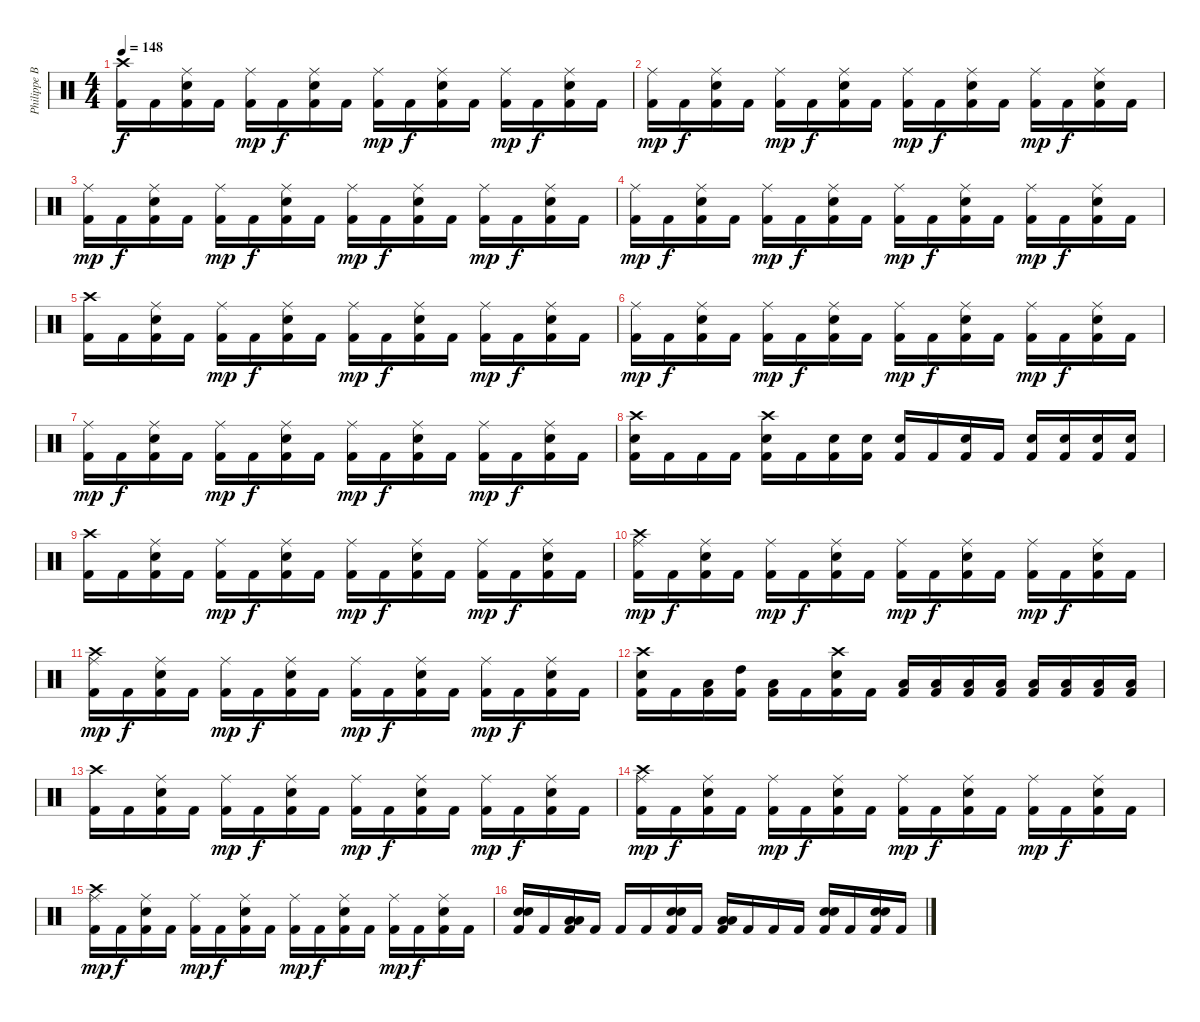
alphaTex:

\track ("Philippe Borda" "Philippe B") {instrument percussion}
\staff {score}
\articulation defaults
\ts (4 4)
\tempo 148
\clef neutral
\ks c
("Crash high (hit)" "Kick (hit) 2").16{dy f} "Kick (hit) 2".16 ("Kick (hit) 2" "Snare (hit) 2" "Ride (middle)").16 "Kick (hit) 2".16 ("Kick (hit) 2" "Ride (middle)").16{dy mp} "Kick (hit) 2".16{dy f} ("Kick (hit) 2" "Snare (hit) 2" "Ride (middle)").16 "Kick (hit) 2".16 ("Kick (hit) 2" "Ride (middle)").16{dy mp} "Kick (hit) 2".16{dy f} ("Kick (hit) 2" "Snare (hit) 2" "Ride (middle)").16 "Kick (hit) 2".16 ("Kick (hit) 2" "Ride (middle)").16{dy mp} "Kick (hit) 2".16{dy f} ("Kick (hit) 2" "Snare (hit) 2" "Ride (middle)").16 "Kick (hit) 2".16 |
("Kick (hit) 2" "Ride (middle)").16{dy mp} "Kick (hit) 2".16{dy f} ("Kick (hit) 2" "Ride (middle)" "Snare (hit) 2").16 "Kick (hit) 2".16 ("Kick (hit) 2" "Ride (middle)").16{dy mp} "Kick (hit) 2".16{dy f} ("Kick (hit) 2" "Ride (middle)" "Snare (hit) 2").16 "Kick (hit) 2".16 ("Kick (hit) 2" "Ride (middle)").16{dy mp} "Kick (hit) 2".16{dy f} ("Kick (hit) 2" "Ride (middle)" "Snare (hit) 2").16 "Kick (hit) 2".16 ("Kick (hit) 2" "Ride (middle)").16{dy mp} "Kick (hit) 2".16{dy f} ("Kick (hit) 2" "Ride (middle)" "Snare (hit) 2").16 "Kick (hit) 2".16 |
("Kick (hit) 2" "Ride (middle)").16{dy mp} "Kick (hit) 2".16{dy f} ("Kick (hit) 2" "Ride (middle)" "Snare (hit) 2").16 "Kick (hit) 2".16 ("Kick (hit) 2" "Ride (middle)").16{dy mp} "Kick (hit) 2".16{dy f} ("Kick (hit) 2" "Ride (middle)" "Snare (hit) 2").16 "Kick (hit) 2".16 ("Kick (hit) 2" "Ride (middle)").16{dy mp} "Kick (hit) 2".16{dy f} ("Kick (hit) 2" "Ride (middle)" "Snare (hit) 2").16 "Kick (hit) 2".16 ("Kick (hit) 2" "Ride (middle)").16{dy mp} "Kick (hit) 2".16{dy f} ("Kick (hit) 2" "Ride (middle)" "Snare (hit) 2").16 "Kick (hit) 2".16 |
("Kick (hit) 2" "Ride (middle)").16{dy mp} "Kick (hit) 2".16{dy f} ("Kick (hit) 2" "Ride (middle)" "Snare (hit) 2").16 "Kick (hit) 2".16 ("Kick (hit) 2" "Ride (middle)").16{dy mp} "Kick (hit) 2".16{dy f} ("Kick (hit) 2" "Ride (middle)" "Snare (hit) 2").16 "Kick (hit) 2".16 ("Kick (hit) 2" "Ride (middle)").16{dy mp} "Kick (hit) 2".16{dy f} ("Kick (hit) 2" "Ride (middle)" "Snare (hit) 2").16 "Kick (hit) 2".16 ("Kick (hit) 2" "Ride (middle)").16{dy mp} "Kick (hit) 2".16{dy f} ("Kick (hit) 2" "Ride (middle)" "Snare (hit) 2").16 "Kick (hit) 2".16 |
("Crash high (hit)" "Kick (hit) 2").16 "Kick (hit) 2".16 ("Kick (hit) 2" "Ride (middle)" "Snare (hit) 2").16 "Kick (hit) 2".16 ("Kick (hit) 2" "Ride (middle)").16{dy mp} "Kick (hit) 2".16{dy f} ("Kick (hit) 2" "Ride (middle)" "Snare (hit) 2").16 "Kick (hit) 2".16 ("Kick (hit) 2" "Ride (middle)").16{dy mp} "Kick (hit) 2".16{dy f} ("Kick (hit) 2" "Ride (middle)" "Snare (hit) 2").16 "Kick (hit) 2".16 ("Kick (hit) 2" "Ride (middle)").16{dy mp} "Kick (hit) 2".16{dy f} ("Kick (hit) 2" "Ride (middle)" "Snare (hit) 2").16 "Kick (hit) 2".16 |
("Kick (hit) 2" "Ride (middle)").16{dy mp} "Kick (hit) 2".16{dy f} ("Kick (hit) 2" "Ride (middle)" "Snare (hit) 2").16 "Kick (hit) 2".16 ("Kick (hit) 2" "Ride (middle)").16{dy mp} "Kick (hit) 2".16{dy f} ("Kick (hit) 2" "Ride (middle)" "Snare (hit) 2").16 "Kick (hit) 2".16 ("Kick (hit) 2" "Ride (middle)").16{dy mp} "Kick (hit) 2".16{dy f} ("Kick (hit) 2" "Ride (middle)" "Snare (hit) 2").16 "Kick (hit) 2".16 ("Kick (hit) 2" "Ride (middle)").16{dy mp} "Kick (hit) 2".16{dy f} ("Kick (hit) 2" "Ride (middle)" "Snare (hit) 2").16 "Kick (hit) 2".16 |
("Kick (hit) 2" "Ride (middle)").16{dy mp} "Kick (hit) 2".16{dy f} ("Kick (hit) 2" "Ride (middle)" "Snare (hit) 2").16 "Kick (hit) 2".16 ("Kick (hit) 2" "Ride (middle)").16{dy mp} "Kick (hit) 2".16{dy f} ("Kick (hit) 2" "Ride (middle)" "Snare (hit) 2").16 "Kick (hit) 2".16 ("Kick (hit) 2" "Ride (middle)").16{dy mp} "Kick (hit) 2".16{dy f} ("Kick (hit) 2" "Ride (middle)" "Snare (hit) 2").16 "Kick (hit) 2".16 ("Kick (hit) 2" "Ride (middle)").16{dy mp} "Kick (hit) 2".16{dy f} ("Kick (hit) 2" "Ride (middle)" "Snare (hit) 2").16 "Kick (hit) 2".16 |
("Crash high (hit)" "Kick (hit) 2" "Snare (hit) 2").16 "Kick (hit) 2".16 "Kick (hit) 2".16 "Kick (hit) 2".16 ("Crash high (hit)" "Kick (hit) 2" "Snare (hit) 2").16 "Kick (hit) 2".16 ("Kick (hit) 2" "Snare (hit) 2").16 ("Snare (hit) 2" "Kick (hit) 2").16 ("Kick (hit) 2" "Snare (hit) 2").16 "Kick (hit) 2".16 ("Kick (hit) 2" "Snare (hit) 2").16 "Kick (hit) 2".16 ("Kick (hit) 2" "Snare (hit) 2").16 ("Snare (hit) 2" "Kick (hit) 2").16 ("Kick (hit) 2" "Snare (hit) 2").16 ("Snare (hit) 2" "Kick (hit) 2").16 |
("Crash high (hit)" "Kick (hit) 2").16 "Kick (hit) 2".16 ("Kick (hit) 2" "Ride (middle)" "Snare (hit) 2").16 "Kick (hit) 2".16 ("Kick (hit) 2" "Ride (middle)").16{dy mp} "Kick (hit) 2".16{dy f} ("Kick (hit) 2" "Ride (middle)" "Snare (hit) 2").16 "Kick (hit) 2".16 ("Kick (hit) 2" "Ride (middle)").16{dy mp} "Kick (hit) 2".16{dy f} ("Kick (hit) 2" "Ride (middle)" "Snare (hit) 2").16 "Kick (hit) 2".16 ("Kick (hit) 2" "Ride (middle)").16{dy mp} "Kick (hit) 2".16{dy f} ("Kick (hit) 2" "Ride (middle)" "Snare (hit) 2").16 "Kick (hit) 2".16 |
("Crash high (hit)" "Kick (hit) 2" "Ride (middle)").16{dy mp} "Kick (hit) 2".16{dy f} ("Kick (hit) 2" "Ride (middle)" "Snare (hit) 2").16 "Kick (hit) 2".16 ("Kick (hit) 2" "Ride (middle)").16{dy mp} "Kick (hit) 2".16{dy f} ("Kick (hit) 2" "Ride (middle)" "Snare (hit) 2").16 "Kick (hit) 2".16 ("Kick (hit) 2" "Ride (middle)").16{dy mp} "Kick (hit) 2".16{dy f} ("Kick (hit) 2" "Ride (middle)" "Snare (hit) 2").16 "Kick (hit) 2".16 ("Kick (hit) 2" "Ride (middle)").16{dy mp} "Kick (hit) 2".16{dy f} ("Kick (hit) 2" "Ride (middle)" "Snare (hit) 2").16 "Kick (hit) 2".16 |
("Crash high (hit)" "Kick (hit) 2" "Ride (middle)").16{dy mp} "Kick (hit) 2".16{dy f} ("Kick (hit) 2" "Ride (middle)" "Snare (hit) 2").16 "Kick (hit) 2".16 ("Kick (hit) 2" "Ride (middle)").16{dy mp} "Kick (hit) 2".16{dy f} ("Kick (hit) 2" "Ride (middle)" "Snare (hit) 2").16 "Kick (hit) 2".16 ("Kick (hit) 2" "Ride (middle)").16{dy mp} "Kick (hit) 2".16{dy f} ("Kick (hit) 2" "Ride (middle)" "Snare (hit) 2").16 "Kick (hit) 2".16 ("Kick (hit) 2" "Ride (middle)").16{dy mp} "Kick (hit) 2".16{dy f} ("Kick (hit) 2" "Ride (middle)" "Snare (hit) 2").16 "Kick (hit) 2".16 |
("Crash high (hit)" "Kick (hit) 2" "Snare (hit) 2").16 "Kick (hit) 2".16 ("Kick (hit) 2" "Low Tom (hit)").16 ("High Tom (hit)" "Kick (hit) 2").16 ("Kick (hit) 2" "Low Tom (hit)").16 "Kick (hit) 2".16 ("Crash high (hit)" "Kick (hit) 2" "Snare (hit) 2").16 "Kick (hit) 2".16 ("Kick (hit) 2" "Low Tom (hit)").16 ("Low Tom (hit)" "Kick (hit) 2").16 ("Kick (hit) 2" "Low Tom (hit)").16 ("Low Tom (hit)" "Kick (hit) 2").16 ("Low Floor Tom (hit)" "Kick (hit) 2").16 ("Low Floor Tom (hit)" "Kick (hit) 2").16 ("Low Floor Tom (hit)" "Kick (hit) 2").16 ("Low Floor Tom (hit)" "Kick (hit) 2").16 |
("Crash high (hit)" "Kick (hit) 2").16 "Kick (hit) 2".16 ("Kick (hit) 2" "Ride (middle)" "Snare (hit) 2").16 "Kick (hit) 2".16 ("Kick (hit) 2" "Ride (middle)").16{dy mp} "Kick (hit) 2".16{dy f} ("Kick (hit) 2" "Ride (middle)" "Snare (hit) 2").16 "Kick (hit) 2".16 ("Kick (hit) 2" "Ride (middle)").16{dy mp} "Kick (hit) 2".16{dy f} ("Kick (hit) 2" "Ride (middle)" "Snare (hit) 2").16 "Kick (hit) 2".16 ("Kick (hit) 2" "Ride (middle)").16{dy mp} "Kick (hit) 2".16{dy f} ("Kick (hit) 2" "Ride (middle)" "Snare (hit) 2").16 "Kick (hit) 2".16 |
("Crash high (hit)" "Kick (hit) 2" "Ride (middle)").16{dy mp} "Kick (hit) 2".16{dy f} ("Kick (hit) 2" "Ride (middle)" "Snare (hit) 2").16 "Kick (hit) 2".16 ("Kick (hit) 2" "Ride (middle)").16{dy mp} "Kick (hit) 2".16{dy f} ("Kick (hit) 2" "Ride (middle)" "Snare (hit) 2").16 "Kick (hit) 2".16 ("Kick (hit) 2" "Ride (middle)").16{dy mp} "Kick (hit) 2".16{dy f} ("Kick (hit) 2" "Ride (middle)" "Snare (hit) 2").16 "Kick (hit) 2".16 ("Kick (hit) 2" "Ride (middle)").16{dy mp} "Kick (hit) 2".16{dy f} ("Kick (hit) 2" "Ride (middle)" "Snare (hit) 2").16 "Kick (hit) 2".16 |
("Crash high (hit)" "Kick (hit) 2" "Ride (middle)").16{dy mp} "Kick (hit) 2".16{dy f} ("Kick (hit) 2" "Ride (middle)" "Snare (hit) 2").16 "Kick (hit) 2".16 ("Kick (hit) 2" "Ride (middle)").16{dy mp} "Kick (hit) 2".16{dy f} ("Kick (hit) 2" "Ride (middle)" "Snare (hit) 2").16 "Kick (hit) 2".16 ("Kick (hit) 2" "Ride (middle)").16{dy mp} "Kick (hit) 2".16{dy f} ("Kick (hit) 2" "Ride (middle)" "Snare (hit) 2").16 "Kick (hit) 2".16 ("Kick (hit) 2" "Ride (middle)").16{dy mp} "Kick (hit) 2".16{dy f} ("Kick (hit) 2" "Snare (hit) 2" "Ride (middle)").16 "Kick (hit) 2".16 |
("Kick (hit) 2" "Snare (hit) 2" "Snare (hit) 2").16 "Kick (hit) 2".16 ("Low Floor Tom (hit)" "Kick (hit) 2" "Low Tom (hit)").16 "Kick (hit) 2".16 "Kick (hit) 2".16 "Kick (hit) 2".16 ("Kick (hit) 2" "Snare (hit) 2" "Snare (hit) 2").16 "Kick (hit) 2".16 ("Low Floor Tom (hit)" "Kick (hit) 2" "Low Tom (hit)").16 "Kick (hit) 2".16 "Kick (hit) 2".16 "Kick (hit) 2".16 ("Snare (hit) 2" "Kick (hit) 2" "Snare (hit) 2").16 "Kick (hit) 2".16 ("Snare (hit) 2" "Kick (hit) 2" "Snare (hit) 2").16 "Kick (hit) 2".16
